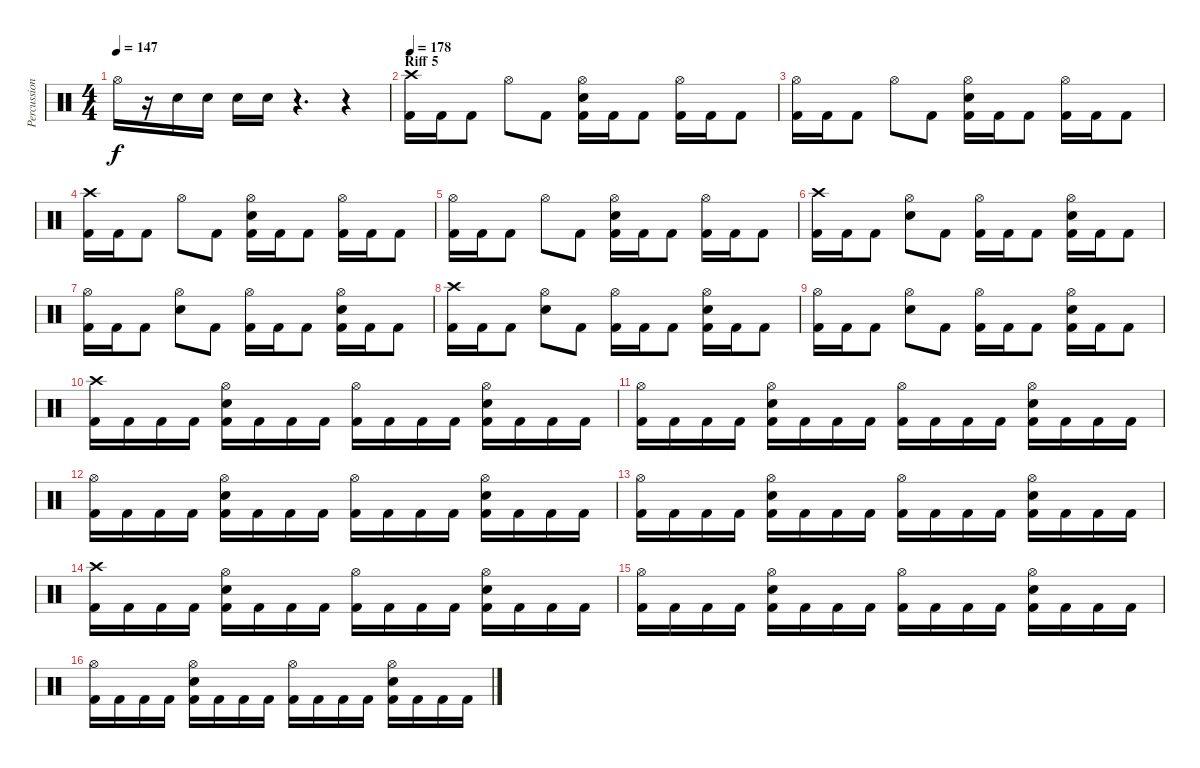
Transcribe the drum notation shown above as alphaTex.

\track ("Percussion" "Percussion") {instrument percussion}
\staff {score}
\articulation defaults
\ts (4 4)
\tempo 147
\clef neutral
\ks c "Hi-Hat (open)".16{dy f}
r.16 "Electric Snare (hit)".16 "Electric Snare (hit)".16 "Electric Snare (hit)".16 "Electric Snare (hit)".16 r.4{d} r.4 |
\section ("" "Riff 5")
\tempo 178
("Crash high (hit)" "Kick (hit) 2").16 "Kick (hit) 2".16 "Kick (hit) 2".8 "Hi-Hat (open)".8 "Kick (hit) 2".8 ("Hi-Hat (open)" "Electric Snare (hit)" "Kick (hit) 2").16 "Kick (hit) 2".16 "Kick (hit) 2".8 ("Hi-Hat (open)" "Kick (hit) 2").16 "Kick (hit) 2".16 "Kick (hit) 2".8 |
("Hi-Hat (open)" "Kick (hit) 2").16 "Kick (hit) 2".16 "Kick (hit) 2".8 "Hi-Hat (open)".8 "Kick (hit) 2".8 ("Hi-Hat (open)" "Electric Snare (hit)" "Kick (hit) 2").16 "Kick (hit) 2".16 "Kick (hit) 2".8 ("Hi-Hat (open)" "Kick (hit) 2").16 "Kick (hit) 2".16 "Kick (hit) 2".8 |
("Crash high (hit)" "Kick (hit) 2").16 "Kick (hit) 2".16 "Kick (hit) 2".8 "Hi-Hat (open)".8 "Kick (hit) 2".8 ("Hi-Hat (open)" "Electric Snare (hit)" "Kick (hit) 2").16 "Kick (hit) 2".16 "Kick (hit) 2".8 ("Hi-Hat (open)" "Kick (hit) 2").16 "Kick (hit) 2".16 "Kick (hit) 2".8 |
("Hi-Hat (open)" "Kick (hit) 2").16 "Kick (hit) 2".16 "Kick (hit) 2".8 "Hi-Hat (open)".8 "Kick (hit) 2".8 ("Hi-Hat (open)" "Electric Snare (hit)" "Kick (hit) 2").16 "Kick (hit) 2".16 "Kick (hit) 2".8 ("Hi-Hat (open)" "Kick (hit) 2").16 "Kick (hit) 2".16 "Kick (hit) 2".8 |
("Crash high (hit)" "Kick (hit) 2").16 "Kick (hit) 2".16 "Kick (hit) 2".8 ("Hi-Hat (open)" "Electric Snare (hit)").8 "Kick (hit) 2".8 ("Hi-Hat (open)" "Kick (hit) 2").16 "Kick (hit) 2".16 "Kick (hit) 2".8 ("Hi-Hat (open)" "Electric Snare (hit)" "Kick (hit) 2").16 "Kick (hit) 2".16 "Kick (hit) 2".8 |
("Hi-Hat (open)" "Kick (hit) 2").16 "Kick (hit) 2".16 "Kick (hit) 2".8 ("Hi-Hat (open)" "Electric Snare (hit)").8 "Kick (hit) 2".8 ("Hi-Hat (open)" "Kick (hit) 2").16 "Kick (hit) 2".16 "Kick (hit) 2".8 ("Hi-Hat (open)" "Electric Snare (hit)" "Kick (hit) 2").16 "Kick (hit) 2".16 "Kick (hit) 2".8 |
("Crash high (hit)" "Kick (hit) 2").16 "Kick (hit) 2".16 "Kick (hit) 2".8 ("Hi-Hat (open)" "Electric Snare (hit)").8 "Kick (hit) 2".8 ("Hi-Hat (open)" "Kick (hit) 2").16 "Kick (hit) 2".16 "Kick (hit) 2".8 ("Hi-Hat (open)" "Electric Snare (hit)" "Kick (hit) 2").16 "Kick (hit) 2".16 "Kick (hit) 2".8 |
("Hi-Hat (open)" "Kick (hit) 2").16 "Kick (hit) 2".16 "Kick (hit) 2".8 ("Hi-Hat (open)" "Electric Snare (hit)").8 "Kick (hit) 2".8 ("Hi-Hat (open)" "Kick (hit) 2").16 "Kick (hit) 2".16 "Kick (hit) 2".8 ("Hi-Hat (open)" "Electric Snare (hit)" "Kick (hit) 2").16 "Kick (hit) 2".16 "Kick (hit) 2".8 |
("Crash high (hit)" "Kick (hit) 2").16 "Kick (hit) 2".16 "Kick (hit) 2".16 "Kick (hit) 2".16 ("Hi-Hat (open)" "Electric Snare (hit)" "Kick (hit) 2").16 "Kick (hit) 2".16 "Kick (hit) 2".16 "Kick (hit) 2".16 ("Hi-Hat (open)" "Kick (hit) 2").16 "Kick (hit) 2".16 "Kick (hit) 2".16 "Kick (hit) 2".16 ("Hi-Hat (open)" "Electric Snare (hit)" "Kick (hit) 2").16 "Kick (hit) 2".16 "Kick (hit) 2".16 "Kick (hit) 2".16 |
("Hi-Hat (open)" "Kick (hit) 2").16 "Kick (hit) 2".16 "Kick (hit) 2".16 "Kick (hit) 2".16 ("Hi-Hat (open)" "Electric Snare (hit)" "Kick (hit) 2").16 "Kick (hit) 2".16 "Kick (hit) 2".16 "Kick (hit) 2".16 ("Hi-Hat (open)" "Kick (hit) 2").16 "Kick (hit) 2".16 "Kick (hit) 2".16 "Kick (hit) 2".16 ("Hi-Hat (open)" "Electric Snare (hit)" "Kick (hit) 2").16 "Kick (hit) 2".16 "Kick (hit) 2".16 "Kick (hit) 2".16 |
("Hi-Hat (open)" "Kick (hit) 2").16 "Kick (hit) 2".16 "Kick (hit) 2".16 "Kick (hit) 2".16 ("Hi-Hat (open)" "Electric Snare (hit)" "Kick (hit) 2").16 "Kick (hit) 2".16 "Kick (hit) 2".16 "Kick (hit) 2".16 ("Hi-Hat (open)" "Kick (hit) 2").16 "Kick (hit) 2".16 "Kick (hit) 2".16 "Kick (hit) 2".16 ("Hi-Hat (open)" "Electric Snare (hit)" "Kick (hit) 2").16 "Kick (hit) 2".16 "Kick (hit) 2".16 "Kick (hit) 2".16 |
("Hi-Hat (open)" "Kick (hit) 2").16 "Kick (hit) 2".16 "Kick (hit) 2".16 "Kick (hit) 2".16 ("Hi-Hat (open)" "Electric Snare (hit)" "Kick (hit) 2").16 "Kick (hit) 2".16 "Kick (hit) 2".16 "Kick (hit) 2".16 ("Hi-Hat (open)" "Kick (hit) 2").16 "Kick (hit) 2".16 "Kick (hit) 2".16 "Kick (hit) 2".16 ("Hi-Hat (open)" "Electric Snare (hit)" "Kick (hit) 2").16 "Kick (hit) 2".16 "Kick (hit) 2".16 "Kick (hit) 2".16 |
("Crash high (hit)" "Kick (hit) 2").16 "Kick (hit) 2".16 "Kick (hit) 2".16 "Kick (hit) 2".16 ("Hi-Hat (open)" "Electric Snare (hit)" "Kick (hit) 2").16 "Kick (hit) 2".16 "Kick (hit) 2".16 "Kick (hit) 2".16 ("Hi-Hat (open)" "Kick (hit) 2").16 "Kick (hit) 2".16 "Kick (hit) 2".16 "Kick (hit) 2".16 ("Hi-Hat (open)" "Electric Snare (hit)" "Kick (hit) 2").16 "Kick (hit) 2".16 "Kick (hit) 2".16 "Kick (hit) 2".16 |
("Hi-Hat (open)" "Kick (hit) 2").16 "Kick (hit) 2".16 "Kick (hit) 2".16 "Kick (hit) 2".16 ("Hi-Hat (open)" "Electric Snare (hit)" "Kick (hit) 2").16 "Kick (hit) 2".16 "Kick (hit) 2".16 "Kick (hit) 2".16 ("Hi-Hat (open)" "Kick (hit) 2").16 "Kick (hit) 2".16 "Kick (hit) 2".16 "Kick (hit) 2".16 ("Hi-Hat (open)" "Electric Snare (hit)" "Kick (hit) 2").16 "Kick (hit) 2".16 "Kick (hit) 2".16 "Kick (hit) 2".16 |
("Hi-Hat (open)" "Kick (hit) 2").16 "Kick (hit) 2".16 "Kick (hit) 2".16 "Kick (hit) 2".16 ("Hi-Hat (open)" "Electric Snare (hit)" "Kick (hit) 2").16 "Kick (hit) 2".16 "Kick (hit) 2".16 "Kick (hit) 2".16 ("Hi-Hat (open)" "Kick (hit) 2").16 "Kick (hit) 2".16 "Kick (hit) 2".16 "Kick (hit) 2".16 ("Hi-Hat (open)" "Electric Snare (hit)" "Kick (hit) 2").16 "Kick (hit) 2".16 "Kick (hit) 2".16 "Kick (hit) 2".16
